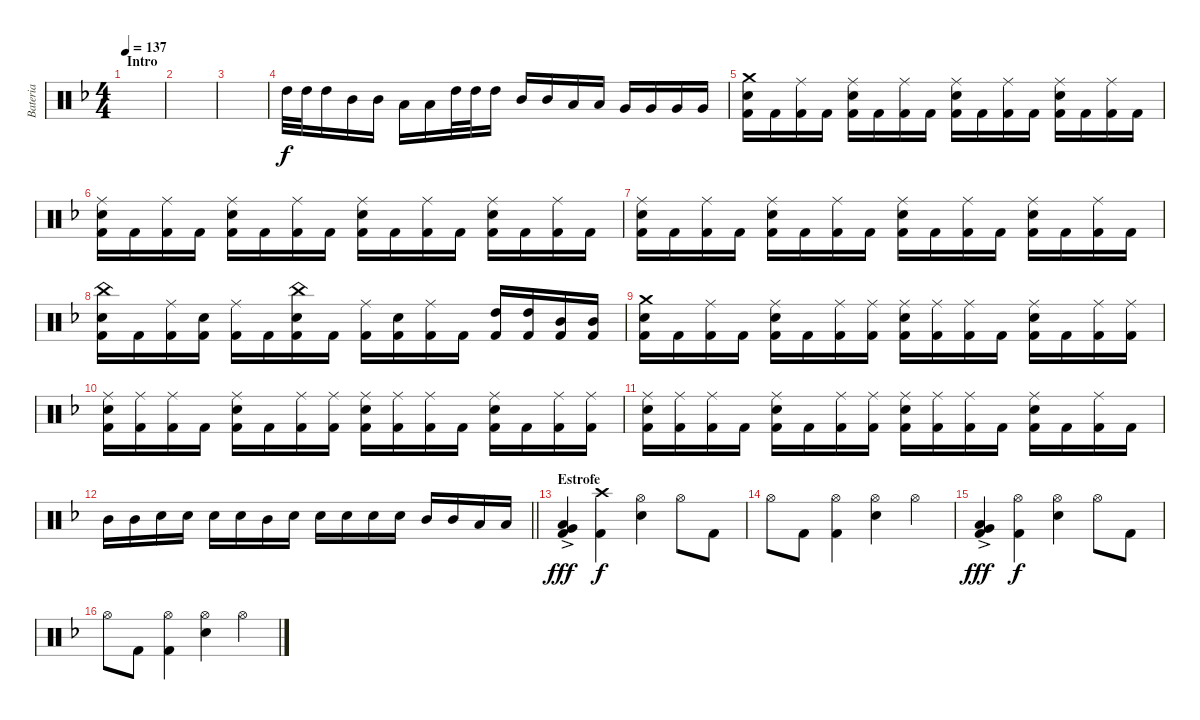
\track ("Bateria" "Bateria") {instrument percussion}
\staff {score}
\articulation defaults
\ts (4 4)
\section ("" "Intro")
\tempo 137
\clef neutral
\ks dminor
|
|
|
"High Tom (hit)".32 "High Tom (hit)".32 "High Tom (hit)".16 "Mid Tom (hit)".16 "Mid Tom (hit)".16 "Low Tom (hit)".16 "Low Tom (hit)".16 "High Tom (hit)".32 "High Tom (hit)".32 "High Tom (hit)".16 "Mid Tom (hit)".16 "Mid Tom (hit)".16 "Low Tom (hit)".16 "Low Tom (hit)".16 "Very Low Tom (hit)".16 "Very Low Tom (hit)".16 "Very Low Tom (hit)".16 "Very Low Tom (hit)".16 |
("Crash medium (hit)" "Electric Snare (hit)" "Kick (hit) 2").16 "Kick (hit) 2".16 ("Ride (middle)" "Kick (hit) 2").16 "Kick (hit) 2".16 ("Ride (middle)" "Electric Snare (hit)" "Kick (hit) 2").16 "Kick (hit) 2".16 ("Ride (middle)" "Kick (hit) 2").16 "Kick (hit) 2".16 ("Ride (middle)" "Electric Snare (hit)" "Kick (hit) 2").16 "Kick (hit) 2".16 ("Ride (middle)" "Kick (hit) 2").16 "Kick (hit) 2".16 ("Ride (middle)" "Electric Snare (hit)" "Kick (hit) 2").16 "Kick (hit) 2".16 ("Ride (middle)" "Kick (hit) 2").16 "Kick (hit) 2".16 |
("Ride (middle)" "Electric Snare (hit)" "Kick (hit) 2").16 "Kick (hit) 2".16 ("Ride (middle)" "Kick (hit) 2").16 "Kick (hit) 2".16 ("Ride (middle)" "Electric Snare (hit)" "Kick (hit) 2").16 "Kick (hit) 2".16 ("Ride (middle)" "Kick (hit) 2").16 "Kick (hit) 2".16 ("Ride (middle)" "Electric Snare (hit)" "Kick (hit) 2").16 "Kick (hit) 2".16 ("Ride (middle)" "Kick (hit) 2").16 "Kick (hit) 2".16 ("Ride (middle)" "Electric Snare (hit)" "Kick (hit) 2").16 "Kick (hit) 2".16 ("Ride (middle)" "Kick (hit) 2").16 "Kick (hit) 2".16 |
("Ride (middle)" "Electric Snare (hit)" "Kick (hit) 2").16 "Kick (hit) 2".16 ("Ride (middle)" "Kick (hit) 2").16 "Kick (hit) 2".16 ("Ride (middle)" "Electric Snare (hit)" "Kick (hit) 2").16 "Kick (hit) 2".16 ("Ride (middle)" "Kick (hit) 2").16 "Kick (hit) 2".16 ("Ride (middle)" "Electric Snare (hit)" "Kick (hit) 2").16 "Kick (hit) 2".16 ("Ride (middle)" "Kick (hit) 2").16 "Kick (hit) 2".16 ("Ride (middle)" "Electric Snare (hit)" "Kick (hit) 2").16 "Kick (hit) 2".16 ("Ride (middle)" "Kick (hit) 2").16 "Kick (hit) 2".16 |
("China (hit)" "Electric Snare (hit)" "Kick (hit) 2").16 "Kick (hit) 2".16 ("Ride (middle)" "Kick (hit) 2").16 ("Electric Snare (hit)" "Kick (hit) 2").16 ("Ride (middle)" "Kick (hit) 2").16 "Kick (hit) 2".16 ("China (hit)" "Electric Snare (hit)" "Kick (hit) 2").16 "Kick (hit) 2".16 ("Ride (middle)" "Kick (hit) 2").16 ("Electric Snare (hit)" "Kick (hit) 2").16 ("Ride (middle)" "Kick (hit) 2").16 "Kick (hit) 2".16 ("High Tom (hit)" "Kick (hit) 2").16 ("High Tom (hit)" "Kick (hit) 2").16 ("Mid Tom (hit)" "Kick (hit) 2").16 ("Mid Tom (hit)" "Kick (hit) 2").16 |
("Crash medium (hit)" "Electric Snare (hit)" "Kick (hit) 2").16 "Kick (hit) 2".16 ("Ride (middle)" "Kick (hit) 2").16 "Kick (hit) 2".16 ("Ride (middle)" "Electric Snare (hit)" "Kick (hit) 2").16 "Kick (hit) 2".16 ("Ride (middle)" "Kick (hit) 2").16 ("Ride (middle)" "Kick (hit) 2").16 ("Ride (middle)" "Electric Snare (hit)" "Kick (hit) 2").16 ("Ride (middle)" "Kick (hit) 2").16 ("Ride (middle)" "Kick (hit) 2").16 "Kick (hit) 2".16 ("Ride (middle)" "Electric Snare (hit)" "Kick (hit) 2").16 "Kick (hit) 2".16 ("Ride (middle)" "Kick (hit) 2").16 ("Ride (middle)" "Kick (hit) 2").16 |
("Ride (middle)" "Electric Snare (hit)" "Kick (hit) 2").16 ("Ride (middle)" "Kick (hit) 2").16 ("Ride (middle)" "Kick (hit) 2").16 "Kick (hit) 2".16 ("Ride (middle)" "Electric Snare (hit)" "Kick (hit) 2").16 "Kick (hit) 2".16 ("Ride (middle)" "Kick (hit) 2").16 ("Ride (middle)" "Kick (hit) 2").16 ("Ride (middle)" "Electric Snare (hit)" "Kick (hit) 2").16 ("Ride (middle)" "Kick (hit) 2").16 ("Ride (middle)" "Kick (hit) 2").16 "Kick (hit) 2".16 ("Ride (middle)" "Electric Snare (hit)" "Kick (hit) 2").16 "Kick (hit) 2".16 ("Ride (middle)" "Kick (hit) 2").16 ("Ride (middle)" "Kick (hit) 2").16 |
("Ride (middle)" "Electric Snare (hit)" "Kick (hit) 2").16 ("Ride (middle)" "Kick (hit) 2").16 ("Ride (middle)" "Kick (hit) 2").16 "Kick (hit) 2".16 ("Ride (middle)" "Electric Snare (hit)" "Kick (hit) 2").16 "Kick (hit) 2".16 ("Ride (middle)" "Kick (hit) 2").16 ("Ride (middle)" "Kick (hit) 2").16 ("Ride (middle)" "Electric Snare (hit)" "Kick (hit) 2").16 ("Ride (middle)" "Kick (hit) 2").16 ("Ride (middle)" "Kick (hit) 2").16 "Kick (hit) 2".16 ("Ride (middle)" "Electric Snare (hit)" "Kick (hit) 2").16 "Kick (hit) 2".16 ("Ride (middle)" "Kick (hit) 2").16 "Kick (hit) 2".16 |
\barLineRight lightlight "Mid Tom (hit)".16 "Mid Tom (hit)".16 "Electric Snare (hit)".16 "Electric Snare (hit)".16 "Electric Snare (hit)".16 "Electric Snare (hit)".16 "Mid Tom (hit)".16 "Electric Snare (hit)".16 "Electric Snare (hit)".16 "Electric Snare (hit)".16 "Electric Snare (hit)".16 "Electric Snare (hit)".16 "Mid Tom (hit)".16 "Mid Tom (hit)".16 "Low Tom (hit)".16 "Low Tom (hit)".16
|
\section ("" "Estrofe")
("Very Low Tom (hit)"{ac} "Low Tom (hit)"{ac} "Kick (hit) 2").4{dy fff} ("Crash high (hit)" "Kick (hit) 2").4{dy f} ("Hi-Hat (open)" "Electric Snare (hit)").4 "Hi-Hat (open)".8 "Kick (hit) 2".8 |
"Hi-Hat (open)".8 "Kick (hit) 2".8 ("Hi-Hat (open)" "Kick (hit) 2").4 ("Hi-Hat (open)" "Electric Snare (hit)").4 "Hi-Hat (open)".4 |
("Very Low Tom (hit)"{ac} "Low Tom (hit)"{ac} "Kick (hit) 2").4{dy fff} ("Hi-Hat (open)" "Kick (hit) 2").4{dy f} ("Hi-Hat (open)" "Electric Snare (hit)").4 "Hi-Hat (open)".8 "Kick (hit) 2".8 |
"Hi-Hat (open)".8 "Kick (hit) 2".8 ("Hi-Hat (open)" "Kick (hit) 2").4 ("Hi-Hat (open)" "Electric Snare (hit)").4 "Hi-Hat (open)".4
